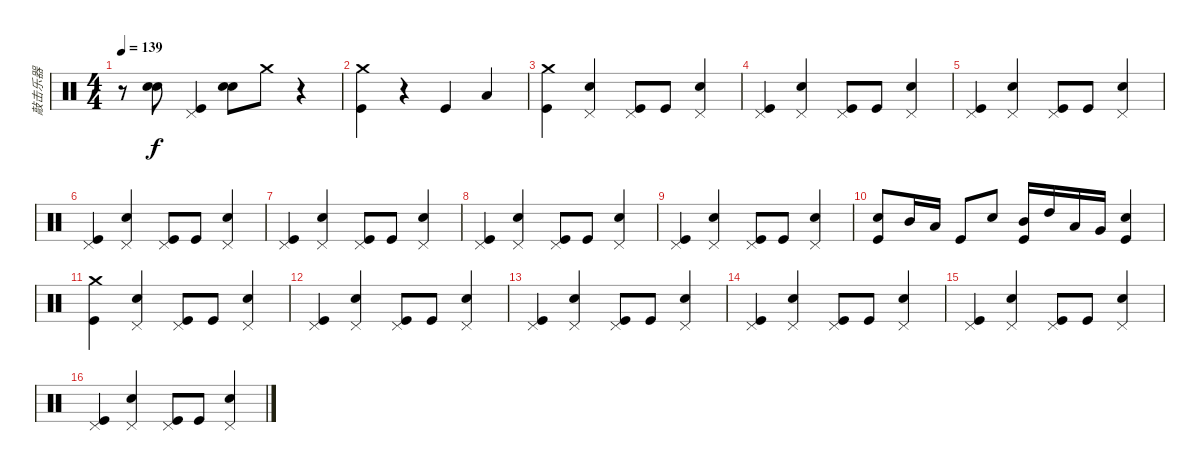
\track ("敲击乐器" "敲击乐器") {instrument percussion}
\staff {score}
\articulation defaults
\ts (4 4)
\tempo 139
\clef neutral
\ks c
r.8{dy f} ("Snare (hit) 2" "Snare (hit) 2").8 ("Pedal Hi-Hat (hit)" "Kick (hit)").4 ("Snare (hit) 2" "Snare (hit) 2").8 "Crash medium (hit)".8 r.4 |
("Crash medium (hit)" "Kick (hit)").4 r.4 "Kick (hit)".4 "Low Tom (hit)".4 |
("Crash medium (hit)" "Kick (hit)").4 ("Pedal Hi-Hat (hit)" "Snare (hit) 2").4 ("Pedal Hi-Hat (hit)" "Kick (hit)").8 "Kick (hit)".8 ("Pedal Hi-Hat (hit)" "Snare (hit) 2").4 |
("Pedal Hi-Hat (hit)" "Kick (hit)").4 ("Pedal Hi-Hat (hit)" "Snare (hit) 2").4 ("Pedal Hi-Hat (hit)" "Kick (hit)").8 "Kick (hit)".8 ("Pedal Hi-Hat (hit)" "Snare (hit) 2").4 |
("Pedal Hi-Hat (hit)" "Kick (hit)").4 ("Pedal Hi-Hat (hit)" "Snare (hit) 2").4 ("Pedal Hi-Hat (hit)" "Kick (hit)").8 "Kick (hit)".8 ("Pedal Hi-Hat (hit)" "Snare (hit) 2").4 |
("Pedal Hi-Hat (hit)" "Kick (hit)").4 ("Pedal Hi-Hat (hit)" "Snare (hit) 2").4 ("Pedal Hi-Hat (hit)" "Kick (hit)").8 "Kick (hit)".8 ("Pedal Hi-Hat (hit)" "Snare (hit) 2").4 |
("Pedal Hi-Hat (hit)" "Kick (hit)").4 ("Pedal Hi-Hat (hit)" "Snare (hit) 2").4 ("Pedal Hi-Hat (hit)" "Kick (hit)").8 "Kick (hit)".8 ("Pedal Hi-Hat (hit)" "Snare (hit) 2").4 |
("Pedal Hi-Hat (hit)" "Kick (hit)").4 ("Pedal Hi-Hat (hit)" "Snare (hit) 2").4 ("Pedal Hi-Hat (hit)" "Kick (hit)").8 "Kick (hit)".8 ("Pedal Hi-Hat (hit)" "Snare (hit) 2").4 |
("Pedal Hi-Hat (hit)" "Kick (hit)").4 ("Pedal Hi-Hat (hit)" "Snare (hit) 2").4 ("Pedal Hi-Hat (hit)" "Kick (hit)").8 "Kick (hit)".8 ("Pedal Hi-Hat (hit)" "Snare (hit) 2").4 |
("Snare (hit) 2" "Kick (hit)").8 "Mid Tom (hit)".16 "Low Tom (hit)".16 "Kick (hit)".8 "Snare (hit) 2".8 ("Mid Tom (hit)" "Kick (hit)").16 "High Tom (hit)".16 "Low Tom (hit)".16 "Very Low Tom (hit)".16 ("Snare (hit) 2" "Kick (hit)").4 |
("Crash medium (hit)" "Kick (hit)").4 ("Pedal Hi-Hat (hit)" "Snare (hit) 2").4 ("Pedal Hi-Hat (hit)" "Kick (hit)").8 "Kick (hit)".8 ("Pedal Hi-Hat (hit)" "Snare (hit) 2").4 |
("Pedal Hi-Hat (hit)" "Kick (hit)").4 ("Pedal Hi-Hat (hit)" "Snare (hit) 2").4 ("Pedal Hi-Hat (hit)" "Kick (hit)").8 "Kick (hit)".8 ("Pedal Hi-Hat (hit)" "Snare (hit) 2").4 |
("Pedal Hi-Hat (hit)" "Kick (hit)").4 ("Pedal Hi-Hat (hit)" "Snare (hit) 2").4 ("Pedal Hi-Hat (hit)" "Kick (hit)").8 "Kick (hit)".8 ("Pedal Hi-Hat (hit)" "Snare (hit) 2").4 |
("Pedal Hi-Hat (hit)" "Kick (hit)").4 ("Pedal Hi-Hat (hit)" "Snare (hit) 2").4 ("Pedal Hi-Hat (hit)" "Kick (hit)").8 "Kick (hit)".8 ("Pedal Hi-Hat (hit)" "Snare (hit) 2").4 |
("Pedal Hi-Hat (hit)" "Kick (hit)").4 ("Pedal Hi-Hat (hit)" "Snare (hit) 2").4 ("Pedal Hi-Hat (hit)" "Kick (hit)").8 "Kick (hit)".8 ("Pedal Hi-Hat (hit)" "Snare (hit) 2").4 |
("Pedal Hi-Hat (hit)" "Kick (hit)").4 ("Pedal Hi-Hat (hit)" "Snare (hit) 2").4 ("Pedal Hi-Hat (hit)" "Kick (hit)").8 "Kick (hit)".8 ("Pedal Hi-Hat (hit)" "Snare (hit) 2").4
